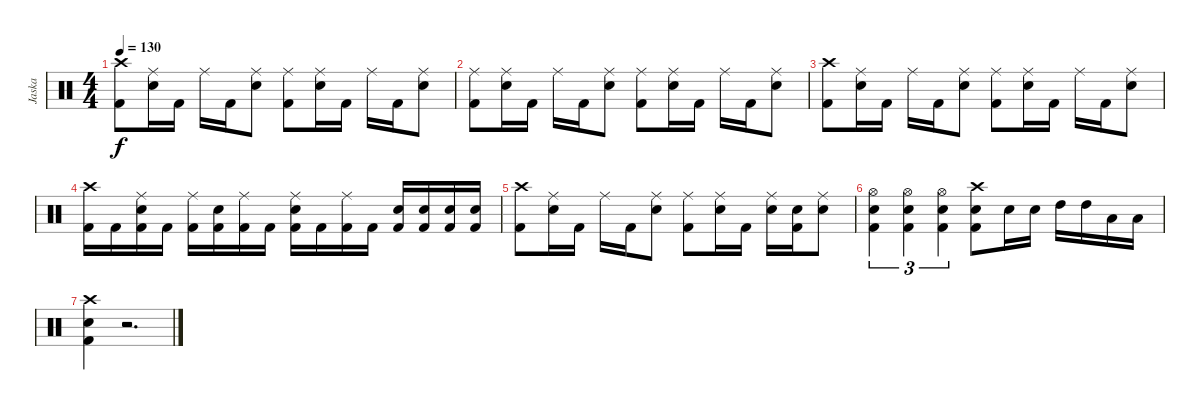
\track ("Jaska " "Jaska ") {instrument percussion}
\staff {score}
\articulation defaults
\ts (4 4)
\tempo 130
\clef neutral
\ks c
("Crash high (hit)" "Kick (hit) 2").8{dy f} ("Ride (middle)" "Electric Snare (hit)").16 "Kick (hit) 2".16 "Ride (middle)".16 "Kick (hit) 2".16 ("Ride (middle)" "Electric Snare (hit)").8 ("Ride (middle)" "Kick (hit) 2").8 ("Ride (middle)" "Electric Snare (hit)").16 "Kick (hit) 2".16 "Ride (middle)".16 "Kick (hit) 2".16 ("Ride (middle)" "Electric Snare (hit)").8 |
("Ride (middle)" "Kick (hit) 2").8 ("Ride (middle)" "Electric Snare (hit)").16 "Kick (hit) 2".16 "Ride (middle)".16 "Kick (hit) 2".16 ("Ride (middle)" "Electric Snare (hit)").8 ("Ride (middle)" "Kick (hit) 2").8 ("Ride (middle)" "Electric Snare (hit)").16 "Kick (hit) 2".16 "Ride (middle)".16 "Kick (hit) 2".16 ("Ride (middle)" "Electric Snare (hit)").8 |
("Crash high (hit)" "Kick (hit) 2").8 ("Ride (middle)" "Electric Snare (hit)").16 "Kick (hit) 2".16 "Ride (middle)".16 "Kick (hit) 2".16 ("Ride (middle)" "Electric Snare (hit)").8 ("Ride (middle)" "Kick (hit) 2").8 ("Ride (middle)" "Electric Snare (hit)").16 "Kick (hit) 2".16 "Ride (middle)".16 "Kick (hit) 2".16 ("Ride (middle)" "Electric Snare (hit)").8 |
("Crash high (hit)" "Kick (hit) 2").16 "Kick (hit) 2".16 ("Ride (middle)" "Electric Snare (hit)" "Kick (hit) 2").16 "Kick (hit) 2".16 ("Ride (middle)" "Kick (hit) 2").16 ("Electric Snare (hit)" "Kick (hit) 2").16 ("Ride (middle)" "Kick (hit) 2").16 "Kick (hit) 2".16 ("Ride (middle)" "Electric Snare (hit)" "Kick (hit) 2").16 "Kick (hit) 2".16 ("Ride (middle)" "Kick (hit) 2").16 "Kick (hit) 2".16 ("Electric Snare (hit)" "Kick (hit) 2").16 ("Electric Snare (hit)" "Kick (hit) 2").16 ("Electric Snare (hit)" "Kick (hit) 2").16 ("Electric Snare (hit)" "Kick (hit) 2").16 |
("Crash high (hit)" "Kick (hit) 2").8 ("Ride (middle)" "Electric Snare (hit)").16 "Kick (hit) 2".16 "Ride (middle)".16 "Kick (hit) 2".16 ("Ride (middle)" "Electric Snare (hit)").8 ("Ride (middle)" "Kick (hit) 2").8 ("Ride (middle)" "Electric Snare (hit)").16 "Kick (hit) 2".16 ("Ride (middle)" "Electric Snare (hit)").16 ("Electric Snare (hit)" "Kick (hit) 2").16 ("Ride (middle)" "Electric Snare (hit)").8 |
("Hi-Hat (open)" "Electric Snare (hit)" "Kick (hit) 2").4{tu (3 2)} ("Hi-Hat (open)" "Electric Snare (hit)" "Kick (hit) 2").4{tu (3 2)} ("Hi-Hat (open)" "Electric Snare (hit)" "Kick (hit) 2").4{tu (3 2)} ("Crash high (hit)" "Electric Snare (hit)" "Kick (hit) 2").8 "Electric Snare (hit)".16 "Electric Snare (hit)".16 "High Tom (hit)".16 "High Tom (hit)".16 "Low Tom (hit)".16 "Low Tom (hit)".16 |
("Crash high (hit)" "Electric Snare (hit)" "Kick (hit) 2").4 r.2{d}
